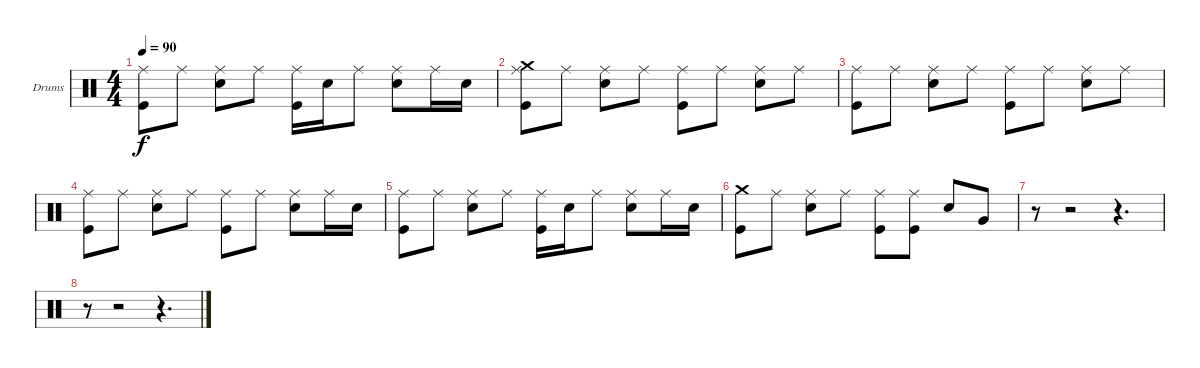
\bracketExtendMode groupsimilarinstruments
\firstSystemTrackNameOrientation horizontal
\otherSystemsTrackNameOrientation horizontal
\track ("Drumkit" "Drums") {instrument percussion}
\staff {score}
\articulation defaults
\ts (4 4)
\tempo 90
\clef neutral
\ks c
("Ride (middle)" "Kick (hit)").8{dy f} "Ride (middle)".8 ("Ride (middle)" "Snare (hit) 2").8 "Ride (middle)".8 ("Ride (middle)" "Kick (hit)").16 "Snare (hit) 2".16 "Ride (middle)".8 ("Ride (middle)" "Snare (hit) 2").8 "Ride (middle)".16 "Snare (hit) 2".16 |
("Crash medium (hit)" "Ride (middle)" "Kick (hit)").8 "Ride (middle)".8 ("Ride (middle)" "Snare (hit) 2").8 "Ride (middle)".8 ("Ride (middle)" "Kick (hit)").8 "Ride (middle)".8 ("Ride (middle)" "Snare (hit) 2").8 "Ride (middle)".8 |
("Ride (middle)" "Kick (hit)").8 "Ride (middle)".8 ("Ride (middle)" "Snare (hit) 2").8 "Ride (middle)".8 ("Ride (middle)" "Kick (hit)").8 "Ride (middle)".8 ("Ride (middle)" "Snare (hit) 2").8 "Ride (middle)".8 |
("Ride (middle)" "Kick (hit)").8 "Ride (middle)".8 ("Ride (middle)" "Snare (hit) 2").8 "Ride (middle)".8 ("Ride (middle)" "Kick (hit)").8 "Ride (middle)".8 ("Ride (middle)" "Snare (hit) 2").8 "Ride (middle)".16 "Snare (hit) 2".16 |
("Ride (middle)" "Kick (hit)").8 "Ride (middle)".8 ("Ride (middle)" "Snare (hit) 2").8 "Ride (middle)".8 ("Ride (middle)" "Kick (hit)").16 "Snare (hit) 2".16 "Ride (middle)".8 ("Ride (middle)" "Snare (hit) 2").8 "Ride (middle)".16 "Snare (hit) 2".16 |
("Crash medium (hit)" "Kick (hit)").8 "Ride (middle)".8 ("Ride (middle)" "Snare (hit) 2").8 "Ride (middle)".8 ("Ride (middle)" "Kick (hit)").8 ("Ride (middle)" "Kick (hit)").8 "Snare (hit) 2".8 "Very Low Tom (hit)".8 |
r.8 r.2 r.4{d} |
r.8 r.2 r.4{d}
